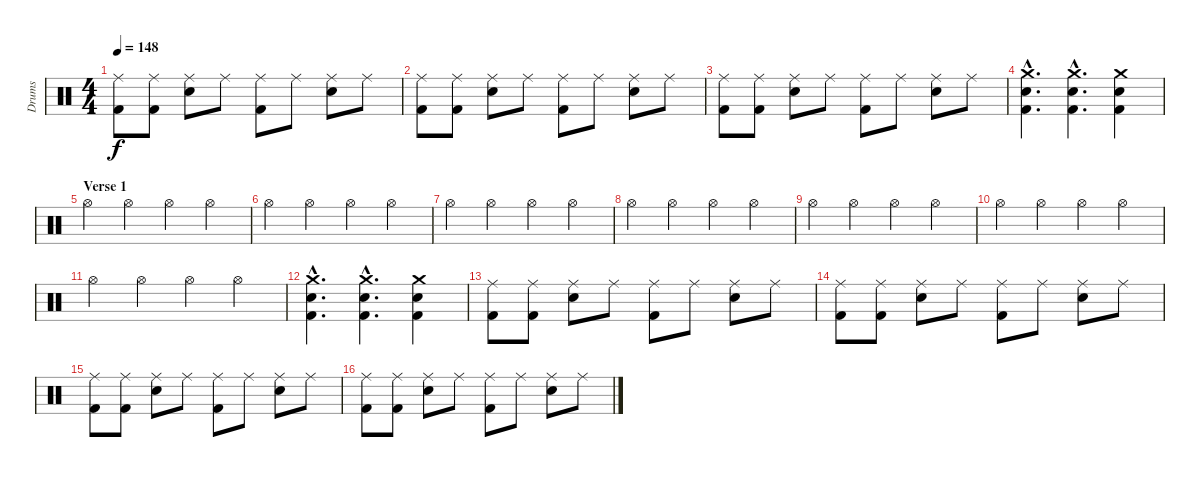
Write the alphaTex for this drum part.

\track ("Drums" "Drums") {instrument percussion}
\staff {score}
\articulation defaults
\ts (4 4)
\tempo 148
\clef neutral
\ks c
("Ride (middle)" "Kick (hit) 2").8{dy f} ("Ride (middle)" "Kick (hit) 2").8 ("Ride (middle)" "Snare (hit) 2").8 "Ride (middle)".8 ("Ride (middle)" "Kick (hit) 2").8 "Ride (middle)".8 ("Ride (middle)" "Snare (hit) 2").8 "Ride (middle)".8 |
("Ride (middle)" "Kick (hit) 2").8 ("Ride (middle)" "Kick (hit) 2").8 ("Ride (middle)" "Snare (hit) 2").8 "Ride (middle)".8 ("Ride (middle)" "Kick (hit) 2").8 "Ride (middle)".8 ("Ride (middle)" "Snare (hit) 2").8 "Ride (middle)".8 |
("Ride (middle)" "Kick (hit) 2").8 ("Ride (middle)" "Kick (hit) 2").8 ("Ride (middle)" "Snare (hit) 2").8 "Ride (middle)".8 ("Ride (middle)" "Kick (hit) 2").8 "Ride (middle)".8 ("Ride (middle)" "Snare (hit) 2").8 "Ride (middle)".8 |
("Crash medium (hit)"{hac} "Snare (hit) 2"{hac} "Kick (hit) 2"{hac}).4{d} ("Crash medium (hit)"{hac} "Snare (hit) 2"{hac} "Kick (hit) 2"{hac}).4{d} ("Crash medium (hit)" "Snare (hit) 2" "Kick (hit) 2").4 |
\section ("" "Verse 1")
"Hi-Hat (open)".4 "Hi-Hat (open)".4 "Hi-Hat (open)".4 "Hi-Hat (open)".4 |
"Hi-Hat (open)".4 "Hi-Hat (open)".4 "Hi-Hat (open)".4 "Hi-Hat (open)".4 |
"Hi-Hat (open)".4 "Hi-Hat (open)".4 "Hi-Hat (open)".4 "Hi-Hat (open)".4 |
"Hi-Hat (open)".4 "Hi-Hat (open)".4 "Hi-Hat (open)".4 "Hi-Hat (open)".4 |
"Hi-Hat (open)".4 "Hi-Hat (open)".4 "Hi-Hat (open)".4 "Hi-Hat (open)".4 |
"Hi-Hat (open)".4 "Hi-Hat (open)".4 "Hi-Hat (open)".4 "Hi-Hat (open)".4 |
"Hi-Hat (open)".4 "Hi-Hat (open)".4 "Hi-Hat (open)".4 "Hi-Hat (open)".4 |
("Crash medium (hit)"{hac} "Snare (hit) 2"{hac} "Kick (hit) 2"{hac}).4{d} ("Crash medium (hit)"{hac} "Snare (hit) 2"{hac} "Kick (hit) 2"{hac}).4{d} ("Crash medium (hit)" "Snare (hit) 2" "Kick (hit) 2").4 |
("Ride (middle)" "Kick (hit) 2").8 ("Ride (middle)" "Kick (hit) 2").8 ("Ride (middle)" "Snare (hit) 2").8 "Ride (middle)".8 ("Ride (middle)" "Kick (hit) 2").8 "Ride (middle)".8 ("Ride (middle)" "Snare (hit) 2").8 "Ride (middle)".8 |
("Ride (middle)" "Kick (hit) 2").8 ("Ride (middle)" "Kick (hit) 2").8 ("Ride (middle)" "Snare (hit) 2").8 "Ride (middle)".8 ("Ride (middle)" "Kick (hit) 2").8 "Ride (middle)".8 ("Ride (middle)" "Snare (hit) 2").8 "Ride (middle)".8 |
("Ride (middle)" "Kick (hit) 2").8 ("Ride (middle)" "Kick (hit) 2").8 ("Ride (middle)" "Snare (hit) 2").8 "Ride (middle)".8 ("Ride (middle)" "Kick (hit) 2").8 "Ride (middle)".8 ("Ride (middle)" "Snare (hit) 2").8 "Ride (middle)".8 |
("Ride (middle)" "Kick (hit) 2").8 ("Ride (middle)" "Kick (hit) 2").8 ("Ride (middle)" "Snare (hit) 2").8 "Ride (middle)".8 ("Ride (middle)" "Kick (hit) 2").8 "Ride (middle)".8 ("Ride (middle)" "Snare (hit) 2").8 "Ride (middle)".8
